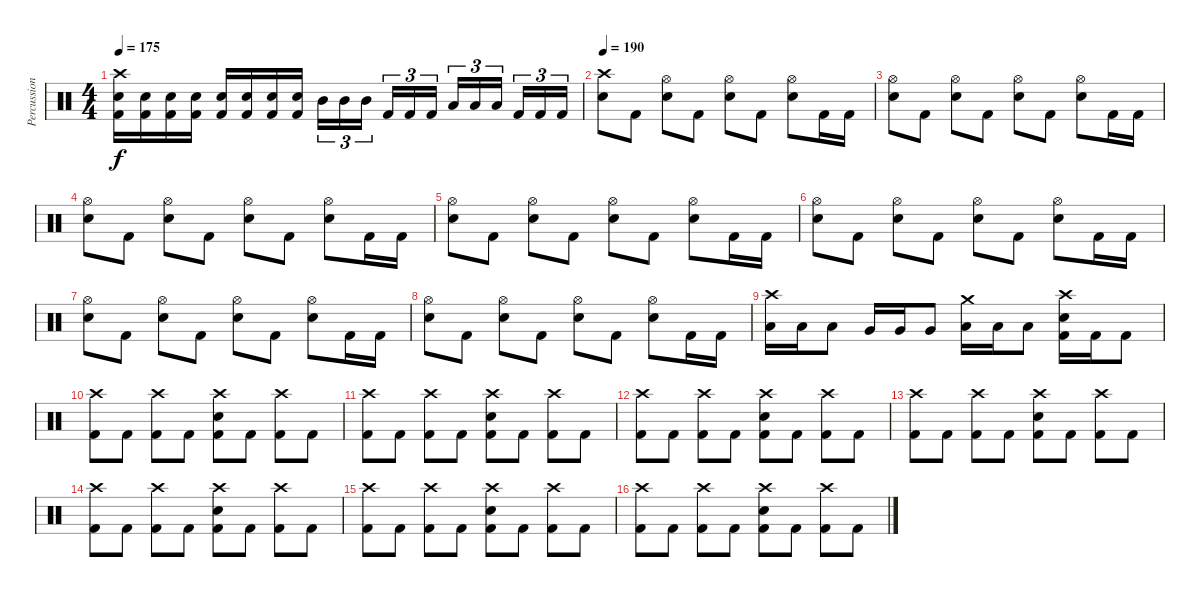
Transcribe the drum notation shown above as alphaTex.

\track ("Percussion" "Percussion") {instrument percussion}
\staff {score}
\articulation defaults
\ts (4 4)
\tempo 175
\clef neutral
\ks c
("Crash high (hit)" "Electric Snare (hit)" "Kick (hit) 2").16{dy f} ("Electric Snare (hit)" "Kick (hit) 2").16 ("Electric Snare (hit)" "Kick (hit) 2").16 ("Electric Snare (hit)" "Kick (hit) 2").16 ("Electric Snare (hit)" "Kick (hit) 2").16 ("Electric Snare (hit)" "Kick (hit) 2").16 ("Electric Snare (hit)" "Kick (hit) 2").16 ("Electric Snare (hit)" "Kick (hit) 2").16 "Mid Tom (hit)".16{tu (3 2)} "Mid Tom (hit)".16{tu (3 2)} "Mid Tom (hit)".16{tu (3 2)} "Kick (hit) 2".16{tu (3 2)} "Kick (hit) 2".16{tu (3 2)} "Kick (hit) 2".16{tu (3 2)} "Low Tom (hit)".16{tu (3 2)} "Low Tom (hit)".16{tu (3 2)} "Low Tom (hit)".16{tu (3 2)} "Kick (hit) 2".16{tu (3 2)} "Kick (hit) 2".16{tu (3 2)} "Kick (hit) 2".16{tu (3 2)} |
\tempo 190
("Crash high (hit)" "Electric Snare (hit)").8 "Kick (hit) 2".8 ("Hi-Hat (open)" "Electric Snare (hit)").8 "Kick (hit) 2".8 ("Hi-Hat (open)" "Electric Snare (hit)").8 "Kick (hit) 2".8 ("Hi-Hat (open)" "Electric Snare (hit)").8 "Kick (hit) 2".16 "Kick (hit) 2".16 |
("Hi-Hat (open)" "Electric Snare (hit)").8 "Kick (hit) 2".8 ("Hi-Hat (open)" "Electric Snare (hit)").8 "Kick (hit) 2".8 ("Hi-Hat (open)" "Electric Snare (hit)").8 "Kick (hit) 2".8 ("Hi-Hat (open)" "Electric Snare (hit)").8 "Kick (hit) 2".16 "Kick (hit) 2".16 |
("Hi-Hat (open)" "Electric Snare (hit)").8 "Kick (hit) 2".8 ("Hi-Hat (open)" "Electric Snare (hit)").8 "Kick (hit) 2".8 ("Hi-Hat (open)" "Electric Snare (hit)").8 "Kick (hit) 2".8 ("Hi-Hat (open)" "Electric Snare (hit)").8 "Kick (hit) 2".16 "Kick (hit) 2".16 |
("Hi-Hat (open)" "Electric Snare (hit)").8 "Kick (hit) 2".8 ("Hi-Hat (open)" "Electric Snare (hit)").8 "Kick (hit) 2".8 ("Hi-Hat (open)" "Electric Snare (hit)").8 "Kick (hit) 2".8 ("Hi-Hat (open)" "Electric Snare (hit)").8 "Kick (hit) 2".16 "Kick (hit) 2".16 |
("Hi-Hat (open)" "Electric Snare (hit)").8 "Kick (hit) 2".8 ("Hi-Hat (open)" "Electric Snare (hit)").8 "Kick (hit) 2".8 ("Hi-Hat (open)" "Electric Snare (hit)").8 "Kick (hit) 2".8 ("Hi-Hat (open)" "Electric Snare (hit)").8 "Kick (hit) 2".16 "Kick (hit) 2".16 |
("Hi-Hat (open)" "Electric Snare (hit)").8 "Kick (hit) 2".8 ("Hi-Hat (open)" "Electric Snare (hit)").8 "Kick (hit) 2".8 ("Hi-Hat (open)" "Electric Snare (hit)").8 "Kick (hit) 2".8 ("Hi-Hat (open)" "Electric Snare (hit)").8 "Kick (hit) 2".16 "Kick (hit) 2".16 |
("Hi-Hat (open)" "Electric Snare (hit)").8 "Kick (hit) 2".8 ("Hi-Hat (open)" "Electric Snare (hit)").8 "Kick (hit) 2".8 ("Hi-Hat (open)" "Electric Snare (hit)").8 "Kick (hit) 2".8 ("Hi-Hat (open)" "Electric Snare (hit)").8 "Kick (hit) 2".16 "Kick (hit) 2".16 |
("Crash high (hit)" "Low Tom (hit)").16 "Low Tom (hit)".16 "Low Tom (hit)".8 "Very Low Tom (hit)".16 "Very Low Tom (hit)".16 "Very Low Tom (hit)".8 ("Crash medium (hit)" "Low Floor Tom (hit)").16 "Low Floor Tom (hit)".16 "Low Floor Tom (hit)".8 ("Crash high (hit)" "Electric Snare (hit)" "Kick (hit) 2").16 "Kick (hit) 2".16 "Kick (hit) 2".8 |
("Crash high (hit)" "Kick (hit) 2").8 "Kick (hit) 2".8 ("Crash high (hit)" "Kick (hit) 2").8 "Kick (hit) 2".8 ("Crash high (hit)" "Electric Snare (hit)" "Kick (hit) 2").8 "Kick (hit) 2".8 ("Crash high (hit)" "Kick (hit) 2").8 "Kick (hit) 2".8 |
("Crash high (hit)" "Kick (hit) 2").8 "Kick (hit) 2".8 ("Crash high (hit)" "Kick (hit) 2").8 "Kick (hit) 2".8 ("Crash high (hit)" "Electric Snare (hit)" "Kick (hit) 2").8 "Kick (hit) 2".8 ("Crash high (hit)" "Kick (hit) 2").8 "Kick (hit) 2".8 |
("Crash high (hit)" "Kick (hit) 2").8 "Kick (hit) 2".8 ("Crash high (hit)" "Kick (hit) 2").8 "Kick (hit) 2".8 ("Crash high (hit)" "Electric Snare (hit)" "Kick (hit) 2").8 "Kick (hit) 2".8 ("Crash high (hit)" "Kick (hit) 2").8 "Kick (hit) 2".8 |
("Crash high (hit)" "Kick (hit) 2").8 "Kick (hit) 2".8 ("Crash high (hit)" "Kick (hit) 2").8 "Kick (hit) 2".8 ("Crash high (hit)" "Electric Snare (hit)" "Kick (hit) 2").8 "Kick (hit) 2".8 ("Crash high (hit)" "Kick (hit) 2").8 "Kick (hit) 2".8 |
("Crash high (hit)" "Kick (hit) 2").8 "Kick (hit) 2".8 ("Crash high (hit)" "Kick (hit) 2").8 "Kick (hit) 2".8 ("Crash high (hit)" "Electric Snare (hit)" "Kick (hit) 2").8 "Kick (hit) 2".8 ("Crash high (hit)" "Kick (hit) 2").8 "Kick (hit) 2".8 |
("Crash high (hit)" "Kick (hit) 2").8 "Kick (hit) 2".8 ("Crash high (hit)" "Kick (hit) 2").8 "Kick (hit) 2".8 ("Crash high (hit)" "Electric Snare (hit)" "Kick (hit) 2").8 "Kick (hit) 2".8 ("Crash high (hit)" "Kick (hit) 2").8 "Kick (hit) 2".8 |
("Crash high (hit)" "Kick (hit) 2").8 "Kick (hit) 2".8 ("Crash high (hit)" "Kick (hit) 2").8 "Kick (hit) 2".8 ("Crash high (hit)" "Electric Snare (hit)" "Kick (hit) 2").8 "Kick (hit) 2".8 ("Crash high (hit)" "Kick (hit) 2").8 "Kick (hit) 2".8
